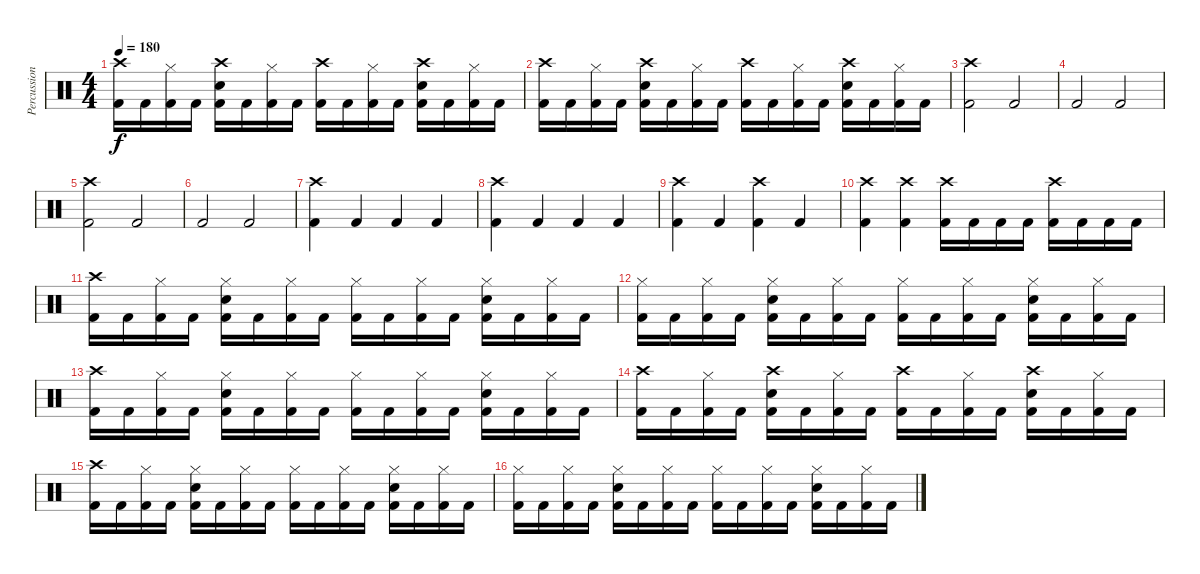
\track ("Percussion" "Percussion") {instrument percussion}
\staff {score}
\articulation defaults
\ts (4 4)
\tempo 180
\clef neutral
\ks c
("Crash high (hit)" "Kick (hit) 2").16{dy f} "Kick (hit) 2".16 ("Hi-Hat (closed)" "Kick (hit) 2").16 "Kick (hit) 2".16 ("Crash high (hit)" "Snare (hit) 2" "Kick (hit) 2").16 "Kick (hit) 2".16 ("Hi-Hat (closed)" "Kick (hit) 2").16 "Kick (hit) 2".16 ("Crash high (hit)" "Kick (hit) 2").16 "Kick (hit) 2".16 ("Hi-Hat (closed)" "Kick (hit) 2").16 "Kick (hit) 2".16 ("Crash high (hit)" "Snare (hit) 2" "Kick (hit) 2").16 "Kick (hit) 2".16 ("Hi-Hat (closed)" "Kick (hit) 2").16 "Kick (hit) 2".16 |
("Crash high (hit)" "Kick (hit) 2").16 "Kick (hit) 2".16 ("Hi-Hat (closed)" "Kick (hit) 2").16 "Kick (hit) 2".16 ("Crash high (hit)" "Snare (hit) 2" "Kick (hit) 2").16 "Kick (hit) 2".16 ("Hi-Hat (closed)" "Kick (hit) 2").16 "Kick (hit) 2".16 ("Crash high (hit)" "Kick (hit) 2").16 "Kick (hit) 2".16 ("Hi-Hat (closed)" "Kick (hit) 2").16 "Kick (hit) 2".16 ("Crash high (hit)" "Snare (hit) 2" "Kick (hit) 2").16 "Kick (hit) 2".16 ("Hi-Hat (closed)" "Kick (hit) 2").16 "Kick (hit) 2".16 |
("Crash high (hit)" "Kick (hit) 2").2 "Kick (hit) 2".2 |
"Kick (hit) 2".2 "Kick (hit) 2".2 |
("Crash high (hit)" "Kick (hit) 2").2 "Kick (hit) 2".2 |
"Kick (hit) 2".2 "Kick (hit) 2".2 |
("Crash high (hit)" "Kick (hit) 2").4 "Kick (hit) 2".4 "Kick (hit) 2".4 "Kick (hit) 2".4 |
("Crash high (hit)" "Kick (hit) 2").4 "Kick (hit) 2".4 "Kick (hit) 2".4 "Kick (hit) 2".4 |
("Crash high (hit)" "Kick (hit) 2").4 "Kick (hit) 2".4 ("Crash high (hit)" "Kick (hit) 2").4 "Kick (hit) 2".4 |
("Crash high (hit)" "Kick (hit) 2").4 ("Crash high (hit)" "Kick (hit) 2").4 ("Crash high (hit)" "Kick (hit) 2").16 "Kick (hit) 2".16 "Kick (hit) 2".16 "Kick (hit) 2".16 ("Crash high (hit)" "Kick (hit) 2").16 "Kick (hit) 2".16 "Kick (hit) 2".16 "Kick (hit) 2".16 |
("Crash high (hit)" "Kick (hit) 2").16 "Kick (hit) 2".16 ("Hi-Hat (closed)" "Kick (hit) 2").16 "Kick (hit) 2".16 ("Hi-Hat (closed)" "Snare (hit) 2" "Kick (hit) 2").16 "Kick (hit) 2".16 ("Hi-Hat (closed)" "Kick (hit) 2").16 "Kick (hit) 2".16 ("Hi-Hat (closed)" "Kick (hit) 2").16 "Kick (hit) 2".16 ("Hi-Hat (closed)" "Kick (hit) 2").16 "Kick (hit) 2".16 ("Hi-Hat (closed)" "Snare (hit) 2" "Kick (hit) 2").16 "Kick (hit) 2".16 ("Hi-Hat (closed)" "Kick (hit) 2").16 "Kick (hit) 2".16 |
("Hi-Hat (closed)" "Kick (hit) 2").16 "Kick (hit) 2".16 ("Hi-Hat (closed)" "Kick (hit) 2").16 "Kick (hit) 2".16 ("Hi-Hat (closed)" "Snare (hit) 2" "Kick (hit) 2").16 "Kick (hit) 2".16 ("Hi-Hat (closed)" "Kick (hit) 2").16 "Kick (hit) 2".16 ("Hi-Hat (closed)" "Kick (hit) 2").16 "Kick (hit) 2".16 ("Hi-Hat (closed)" "Kick (hit) 2").16 "Kick (hit) 2".16 ("Hi-Hat (closed)" "Snare (hit) 2" "Kick (hit) 2").16 "Kick (hit) 2".16 ("Hi-Hat (closed)" "Kick (hit) 2").16 "Kick (hit) 2".16 |
("Crash high (hit)" "Kick (hit) 2").16 "Kick (hit) 2".16 ("Hi-Hat (closed)" "Kick (hit) 2").16 "Kick (hit) 2".16 ("Hi-Hat (closed)" "Snare (hit) 2" "Kick (hit) 2").16 "Kick (hit) 2".16 ("Hi-Hat (closed)" "Kick (hit) 2").16 "Kick (hit) 2".16 ("Hi-Hat (closed)" "Kick (hit) 2").16 "Kick (hit) 2".16 ("Hi-Hat (closed)" "Kick (hit) 2").16 "Kick (hit) 2".16 ("Hi-Hat (closed)" "Snare (hit) 2" "Kick (hit) 2").16 "Kick (hit) 2".16 ("Hi-Hat (closed)" "Kick (hit) 2").16 "Kick (hit) 2".16 |
("Crash high (hit)" "Kick (hit) 2").16 "Kick (hit) 2".16 ("Hi-Hat (closed)" "Kick (hit) 2").16 "Kick (hit) 2".16 ("Crash high (hit)" "Snare (hit) 2" "Kick (hit) 2").16 "Kick (hit) 2".16 ("Hi-Hat (closed)" "Kick (hit) 2").16 "Kick (hit) 2".16 ("Crash high (hit)" "Kick (hit) 2").16 "Kick (hit) 2".16 ("Hi-Hat (closed)" "Kick (hit) 2").16 "Kick (hit) 2".16 ("Crash high (hit)" "Snare (hit) 2" "Kick (hit) 2").16 "Kick (hit) 2".16 ("Hi-Hat (closed)" "Kick (hit) 2").16 "Kick (hit) 2".16 |
("Crash high (hit)" "Kick (hit) 2").16 "Kick (hit) 2".16 ("Hi-Hat (closed)" "Kick (hit) 2").16 "Kick (hit) 2".16 ("Hi-Hat (closed)" "Snare (hit) 2" "Kick (hit) 2").16 "Kick (hit) 2".16 ("Hi-Hat (closed)" "Kick (hit) 2").16 "Kick (hit) 2".16 ("Hi-Hat (closed)" "Kick (hit) 2").16 "Kick (hit) 2".16 ("Hi-Hat (closed)" "Kick (hit) 2").16 "Kick (hit) 2".16 ("Hi-Hat (closed)" "Snare (hit) 2" "Kick (hit) 2").16 "Kick (hit) 2".16 ("Hi-Hat (closed)" "Kick (hit) 2").16 "Kick (hit) 2".16 |
("Hi-Hat (closed)" "Kick (hit) 2").16 "Kick (hit) 2".16 ("Hi-Hat (closed)" "Kick (hit) 2").16 "Kick (hit) 2".16 ("Hi-Hat (closed)" "Snare (hit) 2" "Kick (hit) 2").16 "Kick (hit) 2".16 ("Hi-Hat (closed)" "Kick (hit) 2").16 "Kick (hit) 2".16 ("Hi-Hat (closed)" "Kick (hit) 2").16 "Kick (hit) 2".16 ("Hi-Hat (closed)" "Kick (hit) 2").16 "Kick (hit) 2".16 ("Hi-Hat (closed)" "Snare (hit) 2" "Kick (hit) 2").16 "Kick (hit) 2".16 ("Hi-Hat (closed)" "Kick (hit) 2").16 "Kick (hit) 2".16
